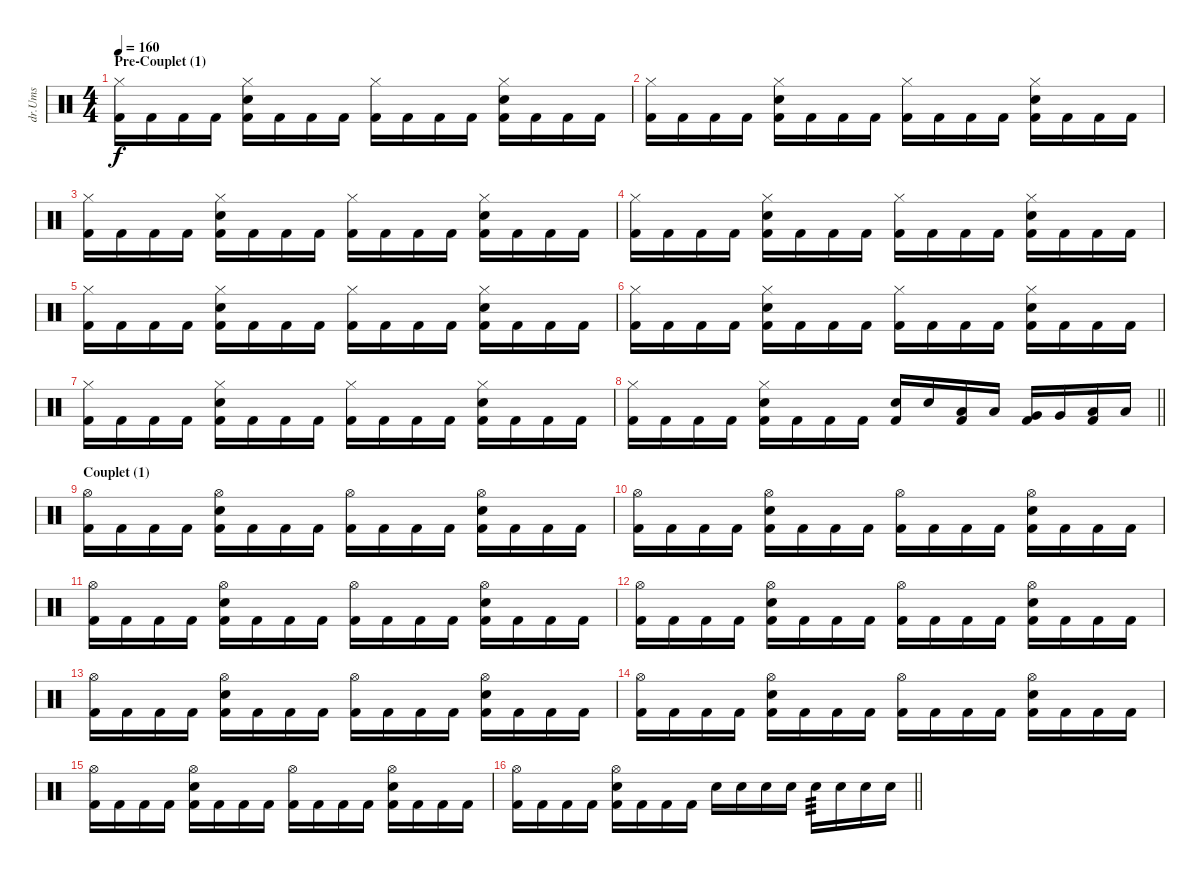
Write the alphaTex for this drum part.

\track ("dr.Ums" "dr.Ums") {instrument percussion}
\staff {score}
\articulation defaults
\ts (4 4)
\section ("" "Pre-Couplet (1)")
\tempo 160
\clef neutral
\ks c
("Hi-Hat (closed)" "Kick (hit) 2").16{dy f} "Kick (hit) 2".16 "Kick (hit) 2".16 "Kick (hit) 2".16 ("Snare (hit) 2" "Hi-Hat (closed)" "Kick (hit) 2").16 "Kick (hit) 2".16 "Kick (hit) 2".16 "Kick (hit) 2".16 ("Hi-Hat (closed)" "Kick (hit) 2").16 "Kick (hit) 2".16 "Kick (hit) 2".16 "Kick (hit) 2".16 ("Snare (hit) 2" "Hi-Hat (closed)" "Kick (hit) 2").16 "Kick (hit) 2".16 "Kick (hit) 2".16 "Kick (hit) 2".16 |
("Hi-Hat (closed)" "Kick (hit) 2").16 "Kick (hit) 2".16 "Kick (hit) 2".16 "Kick (hit) 2".16 ("Snare (hit) 2" "Hi-Hat (closed)" "Kick (hit) 2").16 "Kick (hit) 2".16 "Kick (hit) 2".16 "Kick (hit) 2".16 ("Hi-Hat (closed)" "Kick (hit) 2").16 "Kick (hit) 2".16 "Kick (hit) 2".16 "Kick (hit) 2".16 ("Snare (hit) 2" "Hi-Hat (closed)" "Kick (hit) 2").16 "Kick (hit) 2".16 "Kick (hit) 2".16 "Kick (hit) 2".16 |
("Hi-Hat (closed)" "Kick (hit) 2").16 "Kick (hit) 2".16 "Kick (hit) 2".16 "Kick (hit) 2".16 ("Snare (hit) 2" "Hi-Hat (closed)" "Kick (hit) 2").16 "Kick (hit) 2".16 "Kick (hit) 2".16 "Kick (hit) 2".16 ("Hi-Hat (closed)" "Kick (hit) 2").16 "Kick (hit) 2".16 "Kick (hit) 2".16 "Kick (hit) 2".16 ("Snare (hit) 2" "Hi-Hat (closed)" "Kick (hit) 2").16 "Kick (hit) 2".16 "Kick (hit) 2".16 "Kick (hit) 2".16 |
("Hi-Hat (closed)" "Kick (hit) 2").16 "Kick (hit) 2".16 "Kick (hit) 2".16 "Kick (hit) 2".16 ("Snare (hit) 2" "Hi-Hat (closed)" "Kick (hit) 2").16 "Kick (hit) 2".16 "Kick (hit) 2".16 "Kick (hit) 2".16 ("Hi-Hat (closed)" "Kick (hit) 2").16 "Kick (hit) 2".16 "Kick (hit) 2".16 "Kick (hit) 2".16 ("Snare (hit) 2" "Hi-Hat (closed)" "Kick (hit) 2").16 "Kick (hit) 2".16 "Kick (hit) 2".16 "Kick (hit) 2".16 |
("Hi-Hat (closed)" "Kick (hit) 2").16 "Kick (hit) 2".16 "Kick (hit) 2".16 "Kick (hit) 2".16 ("Snare (hit) 2" "Hi-Hat (closed)" "Kick (hit) 2").16 "Kick (hit) 2".16 "Kick (hit) 2".16 "Kick (hit) 2".16 ("Hi-Hat (closed)" "Kick (hit) 2").16 "Kick (hit) 2".16 "Kick (hit) 2".16 "Kick (hit) 2".16 ("Snare (hit) 2" "Hi-Hat (closed)" "Kick (hit) 2").16 "Kick (hit) 2".16 "Kick (hit) 2".16 "Kick (hit) 2".16 |
("Hi-Hat (closed)" "Kick (hit) 2").16 "Kick (hit) 2".16 "Kick (hit) 2".16 "Kick (hit) 2".16 ("Snare (hit) 2" "Hi-Hat (closed)" "Kick (hit) 2").16 "Kick (hit) 2".16 "Kick (hit) 2".16 "Kick (hit) 2".16 ("Hi-Hat (closed)" "Kick (hit) 2").16 "Kick (hit) 2".16 "Kick (hit) 2".16 "Kick (hit) 2".16 ("Snare (hit) 2" "Hi-Hat (closed)" "Kick (hit) 2").16 "Kick (hit) 2".16 "Kick (hit) 2".16 "Kick (hit) 2".16 |
("Hi-Hat (closed)" "Kick (hit) 2").16 "Kick (hit) 2".16 "Kick (hit) 2".16 "Kick (hit) 2".16 ("Snare (hit) 2" "Hi-Hat (closed)" "Kick (hit) 2").16 "Kick (hit) 2".16 "Kick (hit) 2".16 "Kick (hit) 2".16 ("Hi-Hat (closed)" "Kick (hit) 2").16 "Kick (hit) 2".16 "Kick (hit) 2".16 "Kick (hit) 2".16 ("Snare (hit) 2" "Hi-Hat (closed)" "Kick (hit) 2").16 "Kick (hit) 2".16 "Kick (hit) 2".16 "Kick (hit) 2".16 |
\barLineRight lightlight
("Hi-Hat (closed)" "Kick (hit) 2").16 "Kick (hit) 2".16 "Kick (hit) 2".16 "Kick (hit) 2".16 ("Snare (hit) 2" "Hi-Hat (closed)" "Kick (hit) 2").16 "Kick (hit) 2".16 "Kick (hit) 2".16 "Kick (hit) 2".16 ("Snare (hit) 2" "Kick (hit) 2").16 "Snare (hit) 2".16 ("Low Tom (hit)" "Kick (hit) 2").16 "Low Tom (hit)".16 ("Very Low Tom (hit)" "Kick (hit) 2").16 "Very Low Tom (hit)".16 ("Low Floor Tom (hit)" "Kick (hit) 2").16 "Low Floor Tom (hit)".16 |
\section ("" "Couplet (1)")
("Hi-Hat (open)" "Kick (hit) 2").16 "Kick (hit) 2".16 "Kick (hit) 2".16 "Kick (hit) 2".16 ("Snare (hit) 2" "Hi-Hat (open)" "Kick (hit) 2").16 "Kick (hit) 2".16 "Kick (hit) 2".16 "Kick (hit) 2".16 ("Hi-Hat (open)" "Kick (hit) 2").16 "Kick (hit) 2".16 "Kick (hit) 2".16 "Kick (hit) 2".16 ("Snare (hit) 2" "Hi-Hat (open)" "Kick (hit) 2").16 "Kick (hit) 2".16 "Kick (hit) 2".16 "Kick (hit) 2".16 |
("Hi-Hat (open)" "Kick (hit) 2").16 "Kick (hit) 2".16 "Kick (hit) 2".16 "Kick (hit) 2".16 ("Snare (hit) 2" "Hi-Hat (open)" "Kick (hit) 2").16 "Kick (hit) 2".16 "Kick (hit) 2".16 "Kick (hit) 2".16 ("Hi-Hat (open)" "Kick (hit) 2").16 "Kick (hit) 2".16 "Kick (hit) 2".16 "Kick (hit) 2".16 ("Snare (hit) 2" "Hi-Hat (open)" "Kick (hit) 2").16 "Kick (hit) 2".16 "Kick (hit) 2".16 "Kick (hit) 2".16 |
("Hi-Hat (open)" "Kick (hit) 2").16 "Kick (hit) 2".16 "Kick (hit) 2".16 "Kick (hit) 2".16 ("Snare (hit) 2" "Hi-Hat (open)" "Kick (hit) 2").16 "Kick (hit) 2".16 "Kick (hit) 2".16 "Kick (hit) 2".16 ("Hi-Hat (open)" "Kick (hit) 2").16 "Kick (hit) 2".16 "Kick (hit) 2".16 "Kick (hit) 2".16 ("Snare (hit) 2" "Hi-Hat (open)" "Kick (hit) 2").16 "Kick (hit) 2".16 "Kick (hit) 2".16 "Kick (hit) 2".16 |
("Hi-Hat (open)" "Kick (hit) 2").16 "Kick (hit) 2".16 "Kick (hit) 2".16 "Kick (hit) 2".16 ("Snare (hit) 2" "Hi-Hat (open)" "Kick (hit) 2").16 "Kick (hit) 2".16 "Kick (hit) 2".16 "Kick (hit) 2".16 ("Hi-Hat (open)" "Kick (hit) 2").16 "Kick (hit) 2".16 "Kick (hit) 2".16 "Kick (hit) 2".16 ("Snare (hit) 2" "Hi-Hat (open)" "Kick (hit) 2").16 "Kick (hit) 2".16 "Kick (hit) 2".16 "Kick (hit) 2".16 |
("Hi-Hat (open)" "Kick (hit) 2").16 "Kick (hit) 2".16 "Kick (hit) 2".16 "Kick (hit) 2".16 ("Snare (hit) 2" "Hi-Hat (open)" "Kick (hit) 2").16 "Kick (hit) 2".16 "Kick (hit) 2".16 "Kick (hit) 2".16 ("Hi-Hat (open)" "Kick (hit) 2").16 "Kick (hit) 2".16 "Kick (hit) 2".16 "Kick (hit) 2".16 ("Snare (hit) 2" "Hi-Hat (open)" "Kick (hit) 2").16 "Kick (hit) 2".16 "Kick (hit) 2".16 "Kick (hit) 2".16 |
("Hi-Hat (open)" "Kick (hit) 2").16 "Kick (hit) 2".16 "Kick (hit) 2".16 "Kick (hit) 2".16 ("Snare (hit) 2" "Hi-Hat (open)" "Kick (hit) 2").16 "Kick (hit) 2".16 "Kick (hit) 2".16 "Kick (hit) 2".16 ("Hi-Hat (open)" "Kick (hit) 2").16 "Kick (hit) 2".16 "Kick (hit) 2".16 "Kick (hit) 2".16 ("Snare (hit) 2" "Hi-Hat (open)" "Kick (hit) 2").16 "Kick (hit) 2".16 "Kick (hit) 2".16 "Kick (hit) 2".16 |
("Hi-Hat (open)" "Kick (hit) 2").16 "Kick (hit) 2".16 "Kick (hit) 2".16 "Kick (hit) 2".16 ("Snare (hit) 2" "Hi-Hat (open)" "Kick (hit) 2").16 "Kick (hit) 2".16 "Kick (hit) 2".16 "Kick (hit) 2".16 ("Hi-Hat (open)" "Kick (hit) 2").16 "Kick (hit) 2".16 "Kick (hit) 2".16 "Kick (hit) 2".16 ("Snare (hit) 2" "Hi-Hat (open)" "Kick (hit) 2").16 "Kick (hit) 2".16 "Kick (hit) 2".16 "Kick (hit) 2".16 |
\barLineRight lightlight
("Hi-Hat (open)" "Kick (hit) 2").16 "Kick (hit) 2".16 "Kick (hit) 2".16 "Kick (hit) 2".16 ("Snare (hit) 2" "Hi-Hat (open)" "Kick (hit) 2").16 "Kick (hit) 2".16 "Kick (hit) 2".16 "Kick (hit) 2".16 "Snare (hit) 2".16 "Snare (hit) 2".16 "Snare (hit) 2".16 "Snare (hit) 2".16 "Snare (hit) 2".16{tp 3} "Snare (hit) 2".16 "Snare (hit) 2".16 "Snare (hit) 2".16
